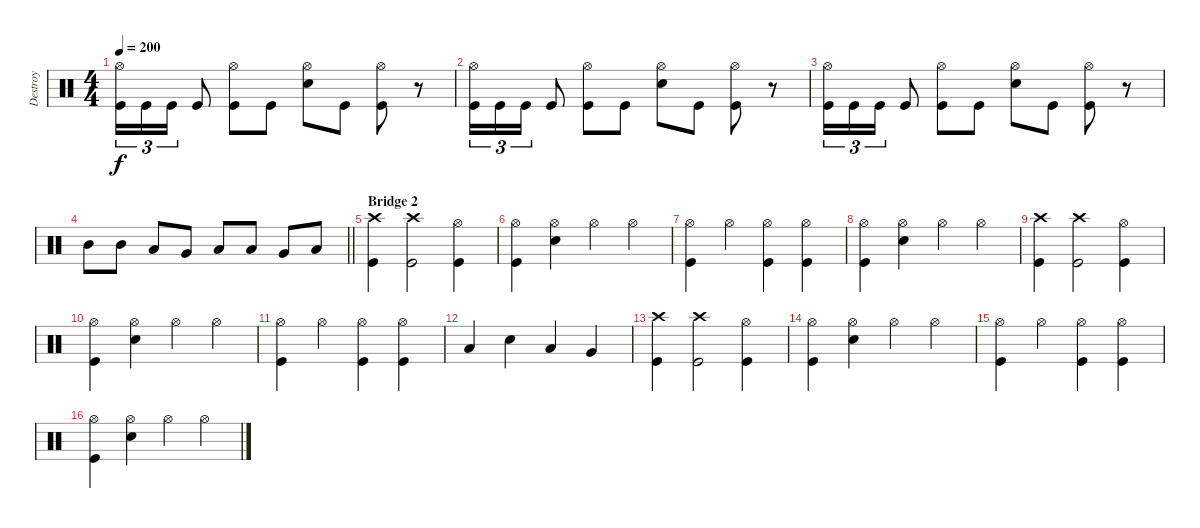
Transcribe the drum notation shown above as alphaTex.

\track ("Destroy" "Destroy") {instrument percussion}
\staff {score}
\articulation defaults
\ts (4 4)
\tempo 200
\clef neutral
\ks c
("Hi-Hat (open)" "Kick (hit)").16{tu (3 2) dy f} "Kick (hit)".16{tu (3 2)} "Kick (hit)".16{tu (3 2)} "Kick (hit)".8 ("Hi-Hat (open)" "Kick (hit)").8 "Kick (hit)".8 ("Hi-Hat (open)" "Snare (hit) 2").8 "Kick (hit)".8 ("Hi-Hat (open)" "Kick (hit)").8 r.8 |
("Hi-Hat (open)" "Kick (hit)").16{tu (3 2)} "Kick (hit)".16{tu (3 2)} "Kick (hit)".16{tu (3 2)} "Kick (hit)".8 ("Hi-Hat (open)" "Kick (hit)").8 "Kick (hit)".8 ("Hi-Hat (open)" "Snare (hit) 2").8 "Kick (hit)".8 ("Hi-Hat (open)" "Kick (hit)").8 r.8 |
("Hi-Hat (open)" "Kick (hit)").16{tu (3 2)} "Kick (hit)".16{tu (3 2)} "Kick (hit)".16{tu (3 2)} "Kick (hit)".8 ("Hi-Hat (open)" "Kick (hit)").8 "Kick (hit)".8 ("Hi-Hat (open)" "Snare (hit) 2").8 "Kick (hit)".8 ("Hi-Hat (open)" "Kick (hit)").8 r.8 |
\barLineRight lightlight "Mid Tom (hit)".8 "Mid Tom (hit)".8 "Low Tom (hit)".8 "Very Low Tom (hit)".8 "Low Tom (hit)".8 "Low Tom (hit)".8 "Very Low Tom (hit)".8 "Low Floor Tom (hit)".8
|
\section ("" "Bridge 2")
("Crash high (hit)" "Kick (hit)").4 ("Crash high (hit)" "Kick (hit)").2 ("Hi-Hat (open)" "Kick (hit)").4 |
("Hi-Hat (open)" "Kick (hit)").4 ("Hi-Hat (open)" "Snare (hit) 2").4 "Hi-Hat (open)".4 "Hi-Hat (open)".4 |
("Hi-Hat (open)" "Kick (hit)").4 "Hi-Hat (open)".4 ("Hi-Hat (open)" "Kick (hit)").4 ("Hi-Hat (open)" "Kick (hit)").4 |
("Hi-Hat (open)" "Kick (hit)").4 ("Hi-Hat (open)" "Snare (hit) 2").4 "Hi-Hat (open)".4 "Hi-Hat (open)".4 |
("Crash high (hit)" "Kick (hit)").4 ("Crash high (hit)" "Kick (hit)").2 ("Hi-Hat (open)" "Kick (hit)").4 |
("Hi-Hat (open)" "Kick (hit)").4 ("Hi-Hat (open)" "Snare (hit) 2").4 "Hi-Hat (open)".4 "Hi-Hat (open)".4 |
("Hi-Hat (open)" "Kick (hit)").4 "Hi-Hat (open)".4 ("Hi-Hat (open)" "Kick (hit)").4 ("Hi-Hat (open)" "Kick (hit)").4 |
"Low Tom (hit)".4 "Snare (hit) 2".4 "Low Tom (hit)".4 "Very Low Tom (hit)".4 |
("Crash high (hit)" "Kick (hit)").4 ("Crash high (hit)" "Kick (hit)").2 ("Hi-Hat (open)" "Kick (hit)").4 |
("Hi-Hat (open)" "Kick (hit)").4 ("Hi-Hat (open)" "Snare (hit) 2").4 "Hi-Hat (open)".4 "Hi-Hat (open)".4 |
("Hi-Hat (open)" "Kick (hit)").4 "Hi-Hat (open)".4 ("Hi-Hat (open)" "Kick (hit)").4 ("Hi-Hat (open)" "Kick (hit)").4 |
("Hi-Hat (open)" "Kick (hit)").4 ("Hi-Hat (open)" "Snare (hit) 2").4 "Hi-Hat (open)".4 "Hi-Hat (open)".4
